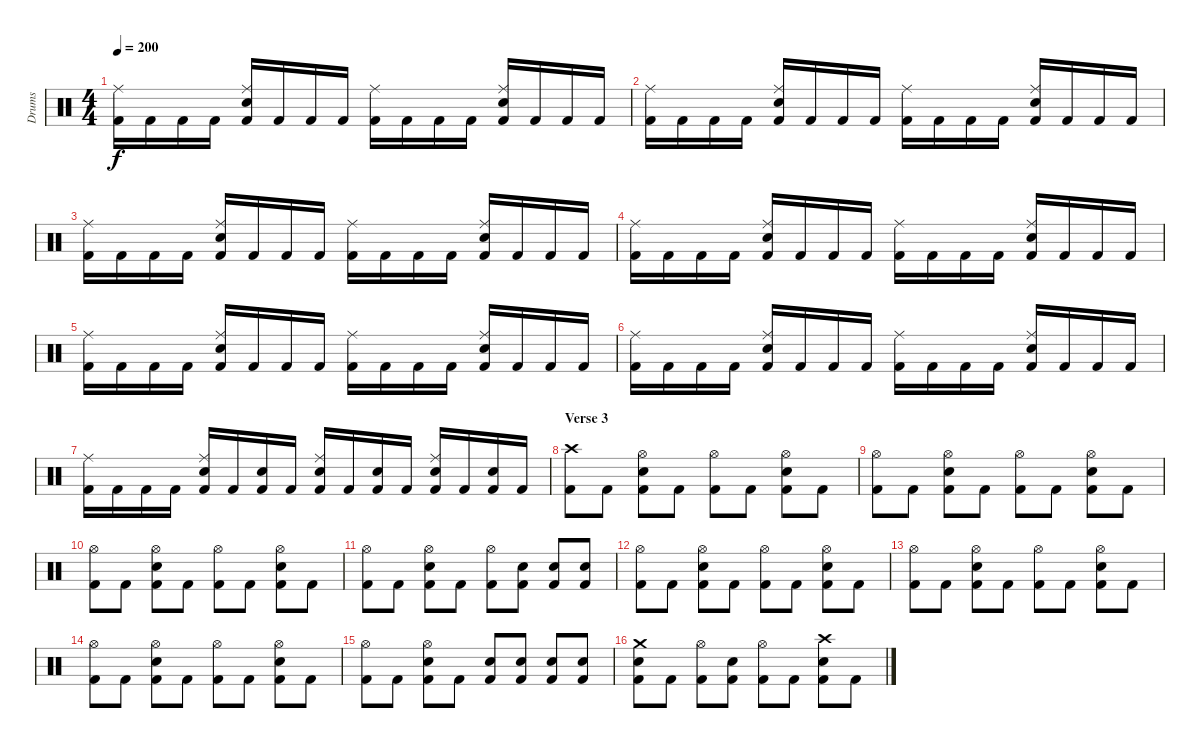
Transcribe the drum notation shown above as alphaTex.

\track ("Drums" "Drums") {instrument percussion}
\staff {score}
\articulation defaults
\ts (4 4)
\tempo 200
\clef neutral
\ks c
("Kick (hit) 2" "Ride (middle)").16{dy f} "Kick (hit) 2".16 "Kick (hit) 2".16 "Kick (hit) 2".16 ("Kick (hit) 2" "Snare (hit) 2" "Ride (middle)").16 "Kick (hit) 2".16 "Kick (hit) 2".16 "Kick (hit) 2".16 ("Kick (hit) 2" "Ride (middle)").16 "Kick (hit) 2".16 "Kick (hit) 2".16 "Kick (hit) 2".16 ("Kick (hit) 2" "Snare (hit) 2" "Ride (middle)").16 "Kick (hit) 2".16 "Kick (hit) 2".16 "Kick (hit) 2".16 |
("Kick (hit) 2" "Ride (middle)").16 "Kick (hit) 2".16 "Kick (hit) 2".16 "Kick (hit) 2".16 ("Kick (hit) 2" "Snare (hit) 2" "Ride (middle)").16 "Kick (hit) 2".16 "Kick (hit) 2".16 "Kick (hit) 2".16 ("Kick (hit) 2" "Ride (middle)").16 "Kick (hit) 2".16 "Kick (hit) 2".16 "Kick (hit) 2".16 ("Kick (hit) 2" "Snare (hit) 2" "Ride (middle)").16 "Kick (hit) 2".16 "Kick (hit) 2".16 "Kick (hit) 2".16 |
("Kick (hit) 2" "Ride (middle)").16 "Kick (hit) 2".16 "Kick (hit) 2".16 "Kick (hit) 2".16 ("Kick (hit) 2" "Snare (hit) 2" "Ride (middle)").16 "Kick (hit) 2".16 "Kick (hit) 2".16 "Kick (hit) 2".16 ("Kick (hit) 2" "Ride (middle)").16 "Kick (hit) 2".16 "Kick (hit) 2".16 "Kick (hit) 2".16 ("Kick (hit) 2" "Snare (hit) 2" "Ride (middle)").16 "Kick (hit) 2".16 "Kick (hit) 2".16 "Kick (hit) 2".16 |
("Kick (hit) 2" "Ride (middle)").16 "Kick (hit) 2".16 "Kick (hit) 2".16 "Kick (hit) 2".16 ("Kick (hit) 2" "Snare (hit) 2" "Ride (middle)").16 "Kick (hit) 2".16 "Kick (hit) 2".16 "Kick (hit) 2".16 ("Kick (hit) 2" "Ride (middle)").16 "Kick (hit) 2".16 "Kick (hit) 2".16 "Kick (hit) 2".16 ("Kick (hit) 2" "Snare (hit) 2" "Ride (middle)").16 "Kick (hit) 2".16 "Kick (hit) 2".16 "Kick (hit) 2".16 |
("Kick (hit) 2" "Ride (middle)").16 "Kick (hit) 2".16 "Kick (hit) 2".16 "Kick (hit) 2".16 ("Kick (hit) 2" "Snare (hit) 2" "Ride (middle)").16 "Kick (hit) 2".16 "Kick (hit) 2".16 "Kick (hit) 2".16 ("Kick (hit) 2" "Ride (middle)").16 "Kick (hit) 2".16 "Kick (hit) 2".16 "Kick (hit) 2".16 ("Kick (hit) 2" "Snare (hit) 2" "Ride (middle)").16 "Kick (hit) 2".16 "Kick (hit) 2".16 "Kick (hit) 2".16 |
("Kick (hit) 2" "Ride (middle)").16 "Kick (hit) 2".16 "Kick (hit) 2".16 "Kick (hit) 2".16 ("Kick (hit) 2" "Snare (hit) 2" "Ride (middle)").16 "Kick (hit) 2".16 "Kick (hit) 2".16 "Kick (hit) 2".16 ("Kick (hit) 2" "Ride (middle)").16 "Kick (hit) 2".16 "Kick (hit) 2".16 "Kick (hit) 2".16 ("Kick (hit) 2" "Snare (hit) 2" "Ride (middle)").16 "Kick (hit) 2".16 "Kick (hit) 2".16 "Kick (hit) 2".16 |
("Kick (hit) 2" "Ride (middle)").16 "Kick (hit) 2".16 "Kick (hit) 2".16 "Kick (hit) 2".16 ("Kick (hit) 2" "Snare (hit) 2" "Ride (middle)").16 "Kick (hit) 2".16 ("Kick (hit) 2" "Snare (hit) 2").16 "Kick (hit) 2".16 ("Kick (hit) 2" "Snare (hit) 2" "Ride (middle)").16 "Kick (hit) 2".16 ("Kick (hit) 2" "Snare (hit) 2").16 "Kick (hit) 2".16 ("Kick (hit) 2" "Snare (hit) 2" "Ride (middle)").16 "Kick (hit) 2".16 ("Kick (hit) 2" "Snare (hit) 2").16 "Kick (hit) 2".16 |
\section ("" "Verse 3")
("Kick (hit) 2" "Crash high (hit)").8 "Kick (hit) 2".8 ("Kick (hit) 2" "Snare (hit) 2" "Hi-Hat (open)").8 "Kick (hit) 2".8 ("Kick (hit) 2" "Hi-Hat (open)").8 "Kick (hit) 2".8 ("Kick (hit) 2" "Snare (hit) 2" "Hi-Hat (open)").8 "Kick (hit) 2".8 |
("Kick (hit) 2" "Hi-Hat (open)").8 "Kick (hit) 2".8 ("Kick (hit) 2" "Snare (hit) 2" "Hi-Hat (open)").8 "Kick (hit) 2".8 ("Kick (hit) 2" "Hi-Hat (open)").8 "Kick (hit) 2".8 ("Kick (hit) 2" "Snare (hit) 2" "Hi-Hat (open)").8 "Kick (hit) 2".8 |
("Kick (hit) 2" "Hi-Hat (open)").8 "Kick (hit) 2".8 ("Kick (hit) 2" "Snare (hit) 2" "Hi-Hat (open)").8 "Kick (hit) 2".8 ("Kick (hit) 2" "Hi-Hat (open)").8 "Kick (hit) 2".8 ("Kick (hit) 2" "Snare (hit) 2" "Hi-Hat (open)").8 "Kick (hit) 2".8 |
("Kick (hit) 2" "Hi-Hat (open)").8 "Kick (hit) 2".8 ("Kick (hit) 2" "Snare (hit) 2" "Hi-Hat (open)").8 "Kick (hit) 2".8 ("Kick (hit) 2" "Hi-Hat (open)").8 ("Kick (hit) 2" "Snare (hit) 2").8 ("Kick (hit) 2" "Snare (hit) 2").8 ("Kick (hit) 2" "Snare (hit) 2").8 |
("Kick (hit) 2" "Hi-Hat (open)").8 "Kick (hit) 2".8 ("Kick (hit) 2" "Snare (hit) 2" "Hi-Hat (open)").8 "Kick (hit) 2".8 ("Kick (hit) 2" "Hi-Hat (open)").8 "Kick (hit) 2".8 ("Kick (hit) 2" "Snare (hit) 2" "Hi-Hat (open)").8 "Kick (hit) 2".8 |
("Kick (hit) 2" "Hi-Hat (open)").8 "Kick (hit) 2".8 ("Kick (hit) 2" "Snare (hit) 2" "Hi-Hat (open)").8 "Kick (hit) 2".8 ("Kick (hit) 2" "Hi-Hat (open)").8 "Kick (hit) 2".8 ("Kick (hit) 2" "Snare (hit) 2" "Hi-Hat (open)").8 "Kick (hit) 2".8 |
("Kick (hit) 2" "Hi-Hat (open)").8 "Kick (hit) 2".8 ("Kick (hit) 2" "Snare (hit) 2" "Hi-Hat (open)").8 "Kick (hit) 2".8 ("Kick (hit) 2" "Hi-Hat (open)").8 "Kick (hit) 2".8 ("Kick (hit) 2" "Snare (hit) 2" "Hi-Hat (open)").8 "Kick (hit) 2".8 |
("Kick (hit) 2" "Hi-Hat (open)").8 "Kick (hit) 2".8 ("Kick (hit) 2" "Snare (hit) 2" "Hi-Hat (open)").8 "Kick (hit) 2".8 ("Kick (hit) 2" "Snare (hit) 2").8 ("Kick (hit) 2" "Snare (hit) 2").8 ("Kick (hit) 2" "Snare (hit) 2").8 ("Kick (hit) 2" "Snare (hit) 2").8 |
("Kick (hit) 2" "Snare (hit) 2" "Crash medium (hit)").8 "Kick (hit) 2".8 ("Kick (hit) 2" "Hi-Hat (open)").8 ("Kick (hit) 2" "Snare (hit) 2").8 ("Kick (hit) 2" "Hi-Hat (open)").8 "Kick (hit) 2".8 ("Kick (hit) 2" "Snare (hit) 2" "Crash high (hit)").8 "Kick (hit) 2".8
